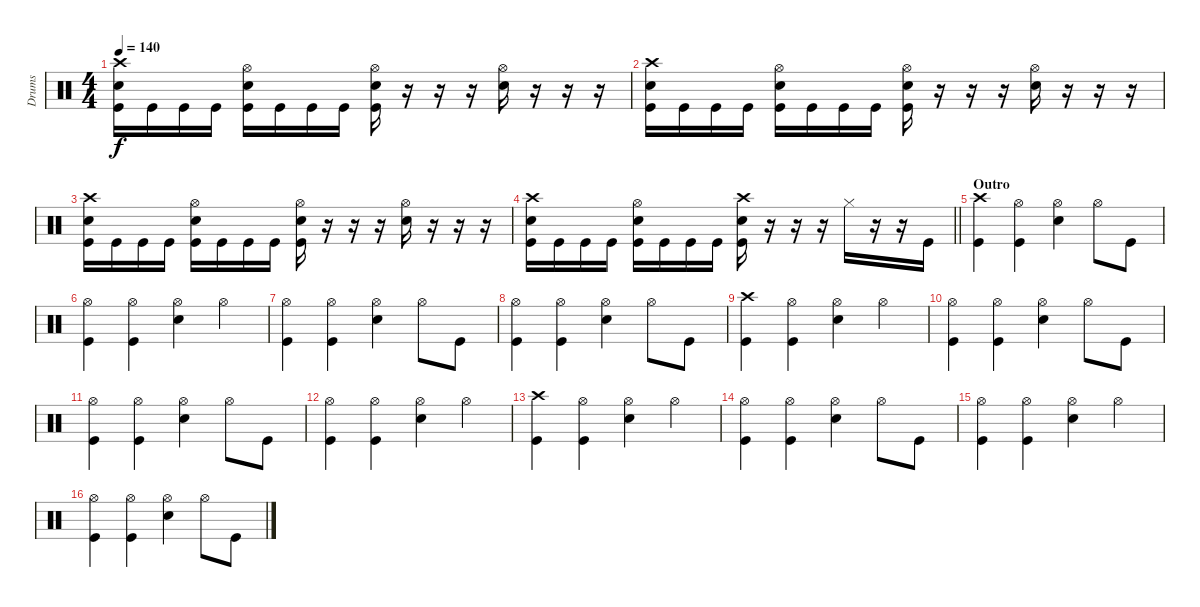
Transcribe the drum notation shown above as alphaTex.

\track ("Drums" "Drums") {instrument percussion}
\staff {score}
\articulation defaults
\ts (4 4)
\tempo 140
\clef neutral
\ks c
("Crash high (hit)" "Snare (hit) 2" "Kick (hit)").16{dy f} "Kick (hit)".16 "Kick (hit)".16 "Kick (hit)".16 ("Hi-Hat (open)" "Snare (hit) 2" "Kick (hit)").16 "Kick (hit)".16 "Kick (hit)".16 "Kick (hit)".16 ("Hi-Hat (open)" "Snare (hit) 2" "Kick (hit)").16 r.16 r.16 r.16 ("Hi-Hat (open)" "Snare (hit) 2").16 r.16 r.16 r.16 |
("Crash high (hit)" "Snare (hit) 2" "Kick (hit)").16 "Kick (hit)".16 "Kick (hit)".16 "Kick (hit)".16 ("Hi-Hat (open)" "Snare (hit) 2" "Kick (hit)").16 "Kick (hit)".16 "Kick (hit)".16 "Kick (hit)".16 ("Hi-Hat (open)" "Snare (hit) 2" "Kick (hit)").16 r.16 r.16 r.16 ("Hi-Hat (open)" "Snare (hit) 2").16 r.16 r.16 r.16 |
("Crash high (hit)" "Snare (hit) 2" "Kick (hit)").16 "Kick (hit)".16 "Kick (hit)".16 "Kick (hit)".16 ("Hi-Hat (open)" "Snare (hit) 2" "Kick (hit)").16 "Kick (hit)".16 "Kick (hit)".16 "Kick (hit)".16 ("Hi-Hat (open)" "Snare (hit) 2" "Kick (hit)").16 r.16 r.16 r.16 ("Hi-Hat (open)" "Snare (hit) 2").16 r.16 r.16 r.16 |
\barLineRight lightlight
("Crash high (hit)" "Snare (hit) 2" "Kick (hit)").16 "Kick (hit)".16 "Kick (hit)".16 "Kick (hit)".16 ("Hi-Hat (open)" "Snare (hit) 2" "Kick (hit)").16 "Kick (hit)".16 "Kick (hit)".16 "Kick (hit)".16 ("Crash high (hit)" "Snare (hit) 2" "Kick (hit)").16 r.16 r.16 r.16 "Hi-Hat (closed)".16 r.16 r.16 "Kick (hit)".16 |
\section ("" "Outro")
("Crash high (hit)" "Kick (hit)").4 ("Hi-Hat (open)" "Kick (hit)").4 ("Hi-Hat (open)" "Snare (hit) 2").4 "Hi-Hat (open)".8 "Kick (hit)".8 |
("Hi-Hat (open)" "Kick (hit)").4 ("Hi-Hat (open)" "Kick (hit)").4 ("Hi-Hat (open)" "Snare (hit) 2").4 "Hi-Hat (open)".4 |
("Hi-Hat (open)" "Kick (hit)").4 ("Hi-Hat (open)" "Kick (hit)").4 ("Hi-Hat (open)" "Snare (hit) 2").4 "Hi-Hat (open)".8 "Kick (hit)".8 |
("Hi-Hat (open)" "Kick (hit)").4 ("Hi-Hat (open)" "Kick (hit)").4 ("Hi-Hat (open)" "Snare (hit) 2").4 "Hi-Hat (open)".8 "Kick (hit)".8 |
("Crash high (hit)" "Kick (hit)").4 ("Hi-Hat (open)" "Kick (hit)").4 ("Hi-Hat (open)" "Snare (hit) 2").4 "Hi-Hat (open)".4 |
("Hi-Hat (open)" "Kick (hit)").4 ("Hi-Hat (open)" "Kick (hit)").4 ("Hi-Hat (open)" "Snare (hit) 2").4 "Hi-Hat (open)".8 "Kick (hit)".8 |
("Hi-Hat (open)" "Kick (hit)").4 ("Hi-Hat (open)" "Kick (hit)").4 ("Hi-Hat (open)" "Snare (hit) 2").4 "Hi-Hat (open)".8 "Kick (hit)".8 |
("Hi-Hat (open)" "Kick (hit)").4 ("Hi-Hat (open)" "Kick (hit)").4 ("Hi-Hat (open)" "Snare (hit) 2").4 "Hi-Hat (open)".4 |
("Crash high (hit)" "Kick (hit)").4 ("Hi-Hat (open)" "Kick (hit)").4 ("Hi-Hat (open)" "Snare (hit) 2").4 "Hi-Hat (open)".4 |
("Hi-Hat (open)" "Kick (hit)").4 ("Hi-Hat (open)" "Kick (hit)").4 ("Hi-Hat (open)" "Snare (hit) 2").4 "Hi-Hat (open)".8 "Kick (hit)".8 |
("Hi-Hat (open)" "Kick (hit)").4 ("Hi-Hat (open)" "Kick (hit)").4 ("Hi-Hat (open)" "Snare (hit) 2").4 "Hi-Hat (open)".4 |
("Hi-Hat (open)" "Kick (hit)").4 ("Hi-Hat (open)" "Kick (hit)").4 ("Hi-Hat (open)" "Snare (hit) 2").4 "Hi-Hat (open)".8 "Kick (hit)".8
